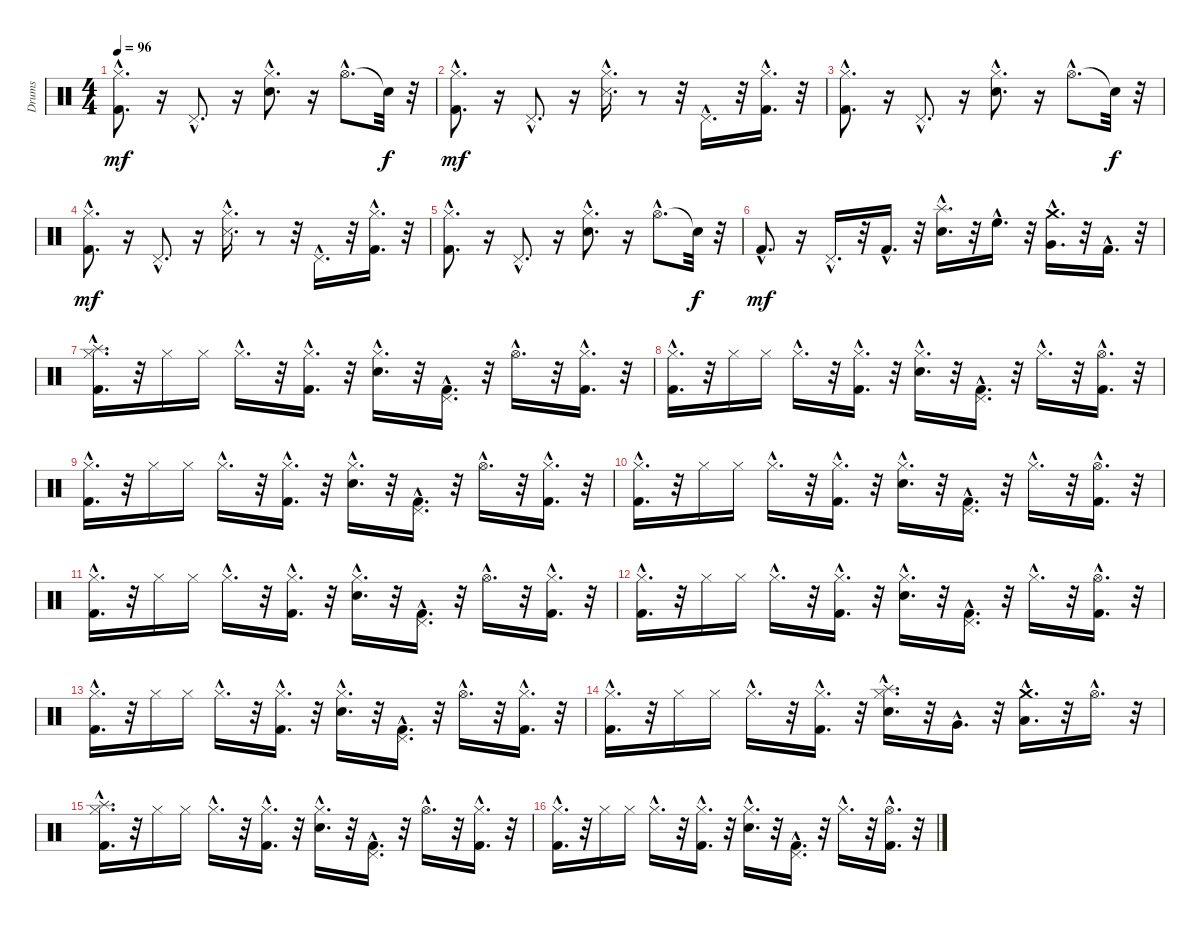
\track ("Drums" "Drums") {instrument percussion}
\staff {score}
\articulation defaults
\ts (4 4)
\tempo 96
\clef neutral
\ks c
("Kick (hit) 2"{hac} "Hi-Hat (closed)"{hac}).8{d dy mf} r.16 "Pedal Hi-Hat (hit)"{hac}.8{d} r.16 ("Snare (hit) 2"{hac} "Hi-Hat (closed)"{hac}).8{d} r.16 "Hi-Hat (open)"{hac}.8{d} "Snare (hit)"{t}.32{dy f} r.32 |
("Hi-Hat (closed)"{hac} "Kick (hit) 2"{hac}).8{d dy mf} r.16 "Pedal Hi-Hat (hit)"{hac}.8{d} r.16 ("Hi-Hat (closed)"{hac} "Snare (side stick) 3"{hac}).16{d} r.8 r.32 "Pedal Hi-Hat (hit)"{hac}.16{d} r.32 ("Kick (hit) 2"{hac} "Hi-Hat (closed)"{hac}).16{d} r.32 |
("Hi-Hat (closed)"{hac} "Kick (hit) 2"{hac}).8{d} r.16 "Pedal Hi-Hat (hit)"{hac}.8{d} r.16 ("Snare (hit) 2"{hac} "Hi-Hat (closed)"{hac}).8{d} r.16 "Hi-Hat (open)"{hac}.8{d} "Snare (hit)"{t}.32{dy f} r.32 |
("Hi-Hat (closed)"{hac} "Kick (hit) 2"{hac}).8{d dy mf} r.16 "Pedal Hi-Hat (hit)"{hac}.8{d} r.16 ("Hi-Hat (closed)"{hac} "Snare (side stick) 3"{hac}).16{d} r.8 r.32 "Pedal Hi-Hat (hit)"{hac}.16{d} r.32 ("Kick (hit) 2"{hac} "Hi-Hat (closed)"{hac}).16{d} r.32 |
("Hi-Hat (closed)"{hac} "Kick (hit) 2"{hac}).8{d} r.16 "Pedal Hi-Hat (hit)"{hac}.8{d} r.16 ("Snare (hit) 2"{hac} "Hi-Hat (closed)"{hac}).8{d} r.16 "Hi-Hat (open)"{hac}.8{d} "Snare (hit)"{t}.32{dy f} r.32 |
"Kick (hit) 2"{hac}.8{d dy mf} r.16 "Pedal Hi-Hat (hit)"{hac}.16{d} r.32 "Kick (hit) 2"{hac}.16{d} r.32 ("Splash (hit)"{hac} "Snare (hit) 2"{hac}).16{d} r.32 "High Floor Tom (hit)"{hac}.16{d} r.32 ("Crash medium (hit)"{hac} "Very Low Tom (hit)"{hac}).16{d} r.32 "Kick (hit) 2"{hac}.16{d} r.32 |
("Hi-Hat (closed)"{hac} "Kick (hit) 2"{hac} "Splash (hit)"{hac}).16{d} r.32 "Hi-Hat (closed)".16 "Hi-Hat (closed)".16 "Hi-Hat (closed)"{hac}.16{d} r.32 ("Kick (hit) 2"{hac} "Hi-Hat (closed)"{hac}).16{d} r.32 ("Snare (hit) 2"{hac} "Hi-Hat (closed)"{hac}).16{d} r.32 ("Pedal Hi-Hat (hit)"{hac} "Kick (hit) 2"{hac}).16{d} r.32 "Hi-Hat (open)"{hac}.16{d} r.32 ("Kick (hit) 2"{hac} "Hi-Hat (closed)"{hac}).16{d} r.32 |
("Hi-Hat (closed)"{hac} "Kick (hit) 2"{hac}).16{d} r.32 "Hi-Hat (closed)".16 "Hi-Hat (closed)".16 "Hi-Hat (closed)"{hac}.16{d} r.32 ("Kick (hit) 2"{hac} "Hi-Hat (closed)"{hac}).16{d} r.32 ("Hi-Hat (closed)"{hac} "Snare (hit) 2"{hac}).16{d} r.32 ("Pedal Hi-Hat (hit)"{hac} "Kick (hit) 2"{hac}).16{d} r.32 "Hi-Hat (closed)"{hac}.16{d} r.32 ("Kick (hit) 2"{hac} "Hi-Hat (open)"{hac}).16{d} r.32 |
("Kick (hit) 2"{hac} "Hi-Hat (closed)"{hac}).16{d} r.32 "Hi-Hat (closed)".16 "Hi-Hat (closed)".16 "Hi-Hat (closed)"{hac}.16{d} r.32 ("Hi-Hat (closed)"{hac} "Kick (hit) 2"{hac}).16{d} r.32 ("Snare (hit) 2"{hac} "Hi-Hat (closed)"{hac}).16{d} r.32 ("Pedal Hi-Hat (hit)"{hac} "Kick (hit) 2"{hac}).16{d} r.32 "Hi-Hat (open)"{hac}.16{d} r.32 ("Kick (hit) 2"{hac} "Hi-Hat (closed)"{hac}).16{d} r.32 |
("Hi-Hat (closed)"{hac} "Kick (hit) 2"{hac}).16{d} r.32 "Hi-Hat (closed)".16 "Hi-Hat (closed)".16 "Hi-Hat (closed)"{hac}.16{d} r.32 ("Hi-Hat (closed)"{hac} "Kick (hit) 2"{hac}).16{d} r.32 ("Snare (hit) 2"{hac} "Hi-Hat (closed)"{hac}).16{d} r.32 ("Pedal Hi-Hat (hit)"{hac} "Kick (hit) 2"{hac}).16{d} r.32 "Hi-Hat (closed)"{hac}.16{d} r.32 ("Hi-Hat (open)"{hac} "Kick (hit) 2"{hac}).16{d} r.32 |
("Hi-Hat (closed)"{hac} "Kick (hit) 2"{hac}).16{d} r.32 "Hi-Hat (closed)".16 "Hi-Hat (closed)".16 "Hi-Hat (closed)"{hac}.16{d} r.32 ("Hi-Hat (closed)"{hac} "Kick (hit) 2"{hac}).16{d} r.32 ("Hi-Hat (closed)"{hac} "Snare (hit) 2"{hac}).16{d} r.32 ("Kick (hit) 2"{hac} "Pedal Hi-Hat (hit)"{hac}).16{d} r.32 "Hi-Hat (open)"{hac}.16{d} r.32 ("Kick (hit) 2"{hac} "Hi-Hat (closed)"{hac}).16{d} r.32 |
("Hi-Hat (closed)"{hac} "Kick (hit) 2"{hac}).16{d} r.32 "Hi-Hat (closed)".16 "Hi-Hat (closed)".16 "Hi-Hat (closed)"{hac}.16{d} r.32 ("Kick (hit) 2"{hac} "Hi-Hat (closed)"{hac}).16{d} r.32 ("Snare (hit) 2"{hac} "Hi-Hat (closed)"{hac}).16{d} r.32 ("Pedal Hi-Hat (hit)"{hac} "Kick (hit) 2"{hac}).16{d} r.32 "Hi-Hat (closed)"{hac}.16{d} r.32 ("Hi-Hat (open)"{hac} "Kick (hit) 2"{hac}).16{d} r.32 |
("Kick (hit) 2"{hac} "Hi-Hat (closed)"{hac}).16{d} r.32 "Hi-Hat (closed)".16 "Hi-Hat (closed)".16 "Hi-Hat (closed)"{hac}.16{d} r.32 ("Hi-Hat (closed)"{hac} "Kick (hit) 2"{hac}).16{d} r.32 ("Hi-Hat (closed)"{hac} "Snare (hit) 2"{hac}).16{d} r.32 ("Pedal Hi-Hat (hit)"{hac} "Kick (hit) 2"{hac}).16{d} r.32 "Hi-Hat (open)"{hac}.16{d} r.32 ("Hi-Hat (closed)"{hac} "Kick (hit) 2"{hac}).16{d} r.32 |
("Kick (hit) 2"{hac} "Hi-Hat (closed)"{hac}).16{d} r.32 "Hi-Hat (closed)".16 "Hi-Hat (closed)".16 "Hi-Hat (closed)"{hac}.16{d} r.32 ("Hi-Hat (closed)"{hac} "Kick (hit) 2"{hac}).16{d} r.32 ("Snare (hit) 2"{hac} "Hi-Hat (closed)"{hac} "Splash (hit)"{hac}).16{d} r.32 "Very Low Tom (hit)"{hac}.16{d} r.32 ("Low Floor Tom (hit)"{hac} "Crash medium (hit)"{hac}).16{d} r.32 "Hi-Hat (open)"{hac}.16{d} r.32 |
("Kick (hit) 2"{hac} "Splash (hit)"{hac} "Hi-Hat (closed)"{hac}).16{d} r.32 "Hi-Hat (closed)".16 "Hi-Hat (closed)".16 "Hi-Hat (closed)"{hac}.16{d} r.32 ("Kick (hit) 2"{hac} "Hi-Hat (closed)"{hac}).16{d} r.32 ("Snare (hit) 2"{hac} "Hi-Hat (closed)"{hac}).16{d} r.32 ("Pedal Hi-Hat (hit)"{hac} "Kick (hit) 2"{hac}).16{d} r.32 "Hi-Hat (open)"{hac}.16{d} r.32 ("Kick (hit) 2"{hac} "Hi-Hat (closed)"{hac}).16{d} r.32 |
("Kick (hit) 2"{hac} "Hi-Hat (closed)"{hac}).16{d} r.32 "Hi-Hat (closed)".16 "Hi-Hat (closed)".16 "Hi-Hat (closed)"{hac}.16{d} r.32 ("Hi-Hat (closed)"{hac} "Kick (hit) 2"{hac}).16{d} r.32 ("Hi-Hat (closed)"{hac} "Snare (hit) 2"{hac}).16{d} r.32 ("Pedal Hi-Hat (hit)"{hac} "Kick (hit) 2"{hac}).16{d} r.32 "Hi-Hat (closed)"{hac}.16{d} r.32 ("Kick (hit) 2"{hac} "Hi-Hat (open)"{hac}).16{d} r.32
